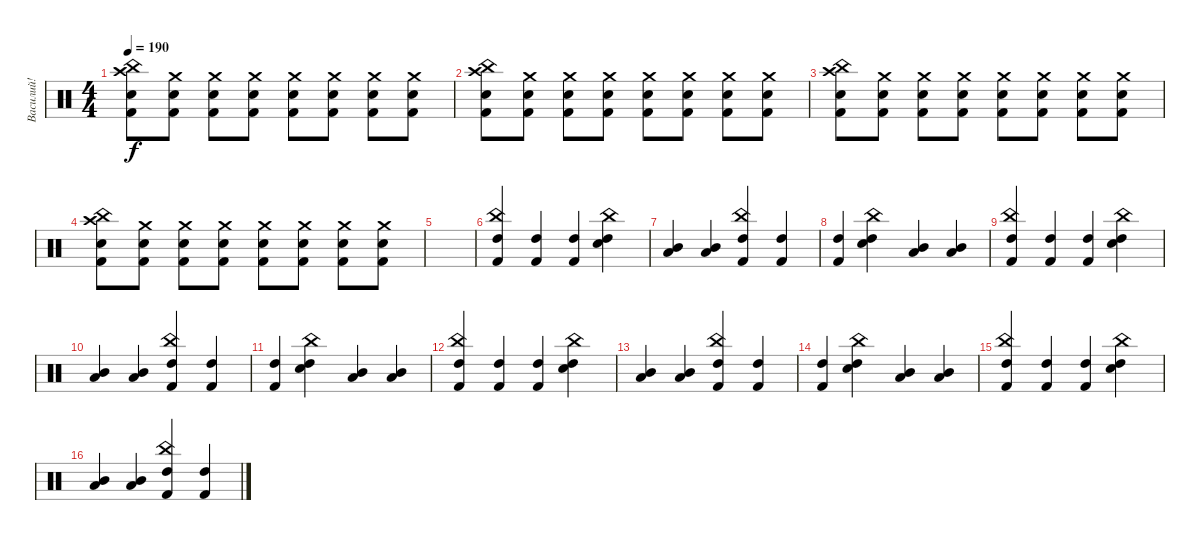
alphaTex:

\track ("Василий!" "Василий!") {instrument percussion}
\staff {score}
\articulation defaults
\ts (4 4)
\tempo 190
\clef neutral
\ks c
("Electric Snare (hit)" "Kick (hit) 2" "China (hit)" "Crash high (hit)").8{dy f} ("Electric Snare (hit)" "Kick (hit) 2" "Crash medium (hit)").8 ("Electric Snare (hit)" "Kick (hit) 2" "Crash medium (hit)").8 ("Electric Snare (hit)" "Kick (hit) 2" "Crash medium (hit)").8 ("Electric Snare (hit)" "Kick (hit) 2" "Crash medium (hit)").8 ("Electric Snare (hit)" "Kick (hit) 2" "Crash medium (hit)").8 ("Electric Snare (hit)" "Kick (hit) 2" "Crash medium (hit)").8 ("Electric Snare (hit)" "Kick (hit) 2" "Crash medium (hit)").8 |
("Electric Snare (hit)" "Kick (hit) 2" "China (hit)" "Crash high (hit)").8 ("Electric Snare (hit)" "Kick (hit) 2" "Crash medium (hit)").8 ("Electric Snare (hit)" "Kick (hit) 2" "Crash medium (hit)").8 ("Electric Snare (hit)" "Kick (hit) 2" "Crash medium (hit)").8 ("Electric Snare (hit)" "Kick (hit) 2" "Crash medium (hit)").8 ("Electric Snare (hit)" "Kick (hit) 2" "Crash medium (hit)").8 ("Electric Snare (hit)" "Kick (hit) 2" "Crash medium (hit)").8 ("Electric Snare (hit)" "Kick (hit) 2" "Crash medium (hit)").8 |
("Electric Snare (hit)" "Kick (hit) 2" "China (hit)" "Crash high (hit)").8 ("Electric Snare (hit)" "Kick (hit) 2" "Crash medium (hit)").8 ("Electric Snare (hit)" "Kick (hit) 2" "Crash medium (hit)").8 ("Electric Snare (hit)" "Kick (hit) 2" "Crash medium (hit)").8 ("Electric Snare (hit)" "Kick (hit) 2" "Crash medium (hit)").8 ("Electric Snare (hit)" "Kick (hit) 2" "Crash medium (hit)").8 ("Electric Snare (hit)" "Kick (hit) 2" "Crash medium (hit)").8 ("Electric Snare (hit)" "Kick (hit) 2" "Crash medium (hit)").8 |
("Electric Snare (hit)" "Kick (hit) 2" "China (hit)" "Crash high (hit)").8 ("Electric Snare (hit)" "Kick (hit) 2" "Crash medium (hit)").8 ("Electric Snare (hit)" "Kick (hit) 2" "Crash medium (hit)").8 ("Electric Snare (hit)" "Kick (hit) 2" "Crash medium (hit)").8 ("Electric Snare (hit)" "Kick (hit) 2" "Crash medium (hit)").8 ("Electric Snare (hit)" "Kick (hit) 2" "Crash medium (hit)").8 ("Electric Snare (hit)" "Kick (hit) 2" "Crash medium (hit)").8 ("Electric Snare (hit)" "Kick (hit) 2" "Crash medium (hit)").8 |
|
("Kick (hit) 2" "High Tom (hit)" "China (hit)").4 ("Kick (hit) 2" "High Tom (hit)").4 ("Kick (hit) 2" "High Tom (hit)").4 ("Electric Snare (hit)" "High Tom (hit)" "China (hit)").4 |
("Low Tom (hit)" "Mid Tom (hit)").4 ("Mid Tom (hit)" "Low Tom (hit)").4 ("Kick (hit) 2" "High Tom (hit)" "China (hit)").4 ("Kick (hit) 2" "High Tom (hit)").4 |
("Kick (hit) 2" "High Tom (hit)").4 ("Electric Snare (hit)" "High Tom (hit)" "China (hit)").4 ("Low Tom (hit)" "Mid Tom (hit)").4 ("Mid Tom (hit)" "Low Tom (hit)").4 |
("Kick (hit) 2" "High Tom (hit)" "China (hit)").4 ("Kick (hit) 2" "High Tom (hit)").4 ("Kick (hit) 2" "High Tom (hit)").4 ("Electric Snare (hit)" "High Tom (hit)" "China (hit)").4 |
("Low Tom (hit)" "Mid Tom (hit)").4 ("Mid Tom (hit)" "Low Tom (hit)").4 ("Kick (hit) 2" "High Tom (hit)" "China (hit)").4 ("Kick (hit) 2" "High Tom (hit)").4 |
("Kick (hit) 2" "High Tom (hit)").4 ("Electric Snare (hit)" "High Tom (hit)" "China (hit)").4 ("Low Tom (hit)" "Mid Tom (hit)").4 ("Mid Tom (hit)" "Low Tom (hit)").4 |
("Kick (hit) 2" "High Tom (hit)" "China (hit)").4 ("Kick (hit) 2" "High Tom (hit)").4 ("Kick (hit) 2" "High Tom (hit)").4 ("Electric Snare (hit)" "High Tom (hit)" "China (hit)").4 |
("Low Tom (hit)" "Mid Tom (hit)").4 ("Mid Tom (hit)" "Low Tom (hit)").4 ("Kick (hit) 2" "High Tom (hit)" "China (hit)").4 ("Kick (hit) 2" "High Tom (hit)").4 |
("Kick (hit) 2" "High Tom (hit)").4 ("Electric Snare (hit)" "High Tom (hit)" "China (hit)").4 ("Low Tom (hit)" "Mid Tom (hit)").4 ("Mid Tom (hit)" "Low Tom (hit)").4 |
("Kick (hit) 2" "High Tom (hit)" "China (hit)").4 ("Kick (hit) 2" "High Tom (hit)").4 ("Kick (hit) 2" "High Tom (hit)").4 ("Electric Snare (hit)" "High Tom (hit)" "China (hit)").4 |
("Low Tom (hit)" "Mid Tom (hit)").4 ("Mid Tom (hit)" "Low Tom (hit)").4 ("Kick (hit) 2" "High Tom (hit)" "China (hit)").4 ("Kick (hit) 2" "High Tom (hit)").4
